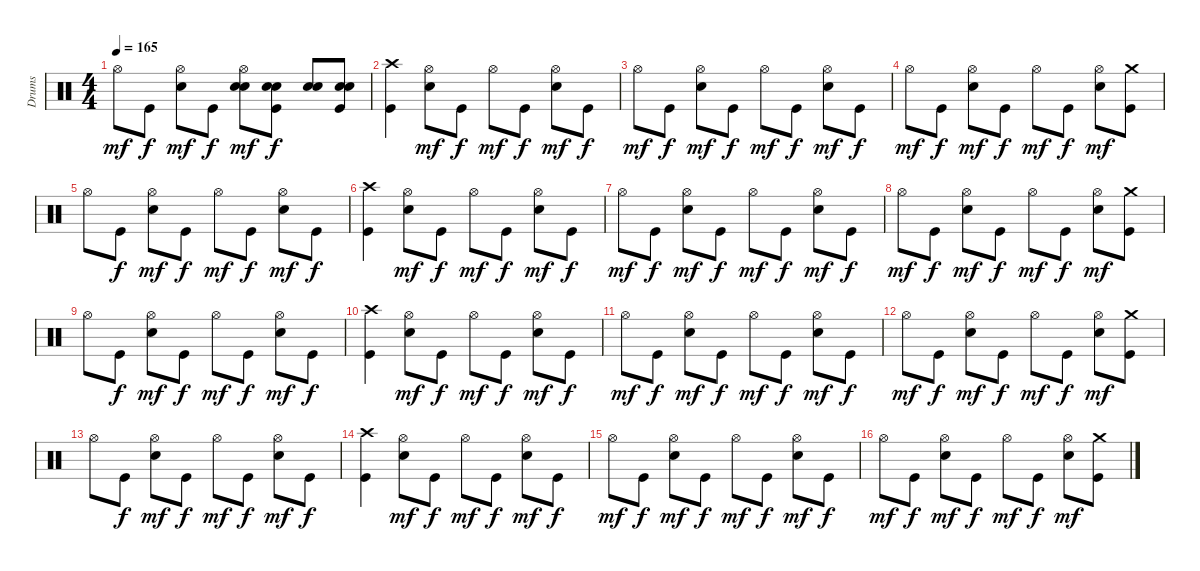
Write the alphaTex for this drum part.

\track ("Drums" "Drums") {instrument percussion}
\staff {score}
\articulation defaults
\ts (4 4)
\tempo 165
\clef neutral
\ks c "Hi-Hat (open)".8{dy mf} "Kick (hit)".8{dy f}
("Electric Snare (hit)" "Hi-Hat (open)").8{dy mf} "Kick (hit)".8{dy f} ("Electric Snare (hit)" "Electric Snare (hit)" "Hi-Hat (open)").8{dy mf} ("Kick (hit)" "Electric Snare (hit)" "Electric Snare (hit)").8{dy f} ("Electric Snare (hit)" "Electric Snare (hit)").8 ("Kick (hit)" "Electric Snare (hit)" "Electric Snare (hit)").8 |
("Kick (hit)" "Crash high (hit)").4 ("Electric Snare (hit)" "Hi-Hat (open)").8{dy mf} "Kick (hit)".8{dy f} "Hi-Hat (open)".8{dy mf} "Kick (hit)".8{dy f} ("Electric Snare (hit)" "Hi-Hat (open)").8{dy mf} "Kick (hit)".8{dy f} |
"Hi-Hat (open)".8{dy mf} "Kick (hit)".8{dy f} ("Electric Snare (hit)" "Hi-Hat (open)").8{dy mf} "Kick (hit)".8{dy f} "Hi-Hat (open)".8{dy mf} "Kick (hit)".8{dy f} ("Electric Snare (hit)" "Hi-Hat (open)").8{dy mf} "Kick (hit)".8{dy f} |
"Hi-Hat (open)".8{dy mf} "Kick (hit)".8{dy f} ("Electric Snare (hit)" "Hi-Hat (open)").8{dy mf} "Kick (hit)".8{dy f} "Hi-Hat (open)".8{dy mf} "Kick (hit)".8{dy f} ("Electric Snare (hit)" "Hi-Hat (open)").8{dy mf} ("Kick (hit)" "Crash medium (hit)").8 |
"Hi-Hat (open)".8 "Kick (hit)".8{dy f} ("Electric Snare (hit)" "Hi-Hat (open)").8{dy mf} "Kick (hit)".8{dy f} "Hi-Hat (open)".8{dy mf} "Kick (hit)".8{dy f} ("Electric Snare (hit)" "Hi-Hat (open)").8{dy mf} "Kick (hit)".8{dy f} |
("Kick (hit)" "Crash high (hit)").4 ("Electric Snare (hit)" "Hi-Hat (open)").8{dy mf} "Kick (hit)".8{dy f} "Hi-Hat (open)".8{dy mf} "Kick (hit)".8{dy f} ("Electric Snare (hit)" "Hi-Hat (open)").8{dy mf} "Kick (hit)".8{dy f} |
"Hi-Hat (open)".8{dy mf} "Kick (hit)".8{dy f} ("Electric Snare (hit)" "Hi-Hat (open)").8{dy mf} "Kick (hit)".8{dy f} "Hi-Hat (open)".8{dy mf} "Kick (hit)".8{dy f} ("Electric Snare (hit)" "Hi-Hat (open)").8{dy mf} "Kick (hit)".8{dy f} |
"Hi-Hat (open)".8{dy mf} "Kick (hit)".8{dy f} ("Electric Snare (hit)" "Hi-Hat (open)").8{dy mf} "Kick (hit)".8{dy f} "Hi-Hat (open)".8{dy mf} "Kick (hit)".8{dy f} ("Electric Snare (hit)" "Hi-Hat (open)").8{dy mf} ("Kick (hit)" "Crash medium (hit)").8 |
"Hi-Hat (open)".8 "Kick (hit)".8{dy f} ("Electric Snare (hit)" "Hi-Hat (open)").8{dy mf} "Kick (hit)".8{dy f} "Hi-Hat (open)".8{dy mf} "Kick (hit)".8{dy f} ("Electric Snare (hit)" "Hi-Hat (open)").8{dy mf} "Kick (hit)".8{dy f} |
("Kick (hit)" "Crash high (hit)").4 ("Electric Snare (hit)" "Hi-Hat (open)").8{dy mf} "Kick (hit)".8{dy f} "Hi-Hat (open)".8{dy mf} "Kick (hit)".8{dy f} ("Electric Snare (hit)" "Hi-Hat (open)").8{dy mf} "Kick (hit)".8{dy f} |
"Hi-Hat (open)".8{dy mf} "Kick (hit)".8{dy f} ("Electric Snare (hit)" "Hi-Hat (open)").8{dy mf} "Kick (hit)".8{dy f} "Hi-Hat (open)".8{dy mf} "Kick (hit)".8{dy f} ("Electric Snare (hit)" "Hi-Hat (open)").8{dy mf} "Kick (hit)".8{dy f} |
"Hi-Hat (open)".8{dy mf} "Kick (hit)".8{dy f} ("Electric Snare (hit)" "Hi-Hat (open)").8{dy mf} "Kick (hit)".8{dy f} "Hi-Hat (open)".8{dy mf} "Kick (hit)".8{dy f} ("Electric Snare (hit)" "Hi-Hat (open)").8{dy mf} ("Kick (hit)" "Crash medium (hit)").8 |
"Hi-Hat (open)".8 "Kick (hit)".8{dy f} ("Electric Snare (hit)" "Hi-Hat (open)").8{dy mf} "Kick (hit)".8{dy f} "Hi-Hat (open)".8{dy mf} "Kick (hit)".8{dy f} ("Electric Snare (hit)" "Hi-Hat (open)").8{dy mf} "Kick (hit)".8{dy f} |
("Kick (hit)" "Crash high (hit)").4 ("Electric Snare (hit)" "Hi-Hat (open)").8{dy mf} "Kick (hit)".8{dy f} "Hi-Hat (open)".8{dy mf} "Kick (hit)".8{dy f} ("Electric Snare (hit)" "Hi-Hat (open)").8{dy mf} "Kick (hit)".8{dy f} |
"Hi-Hat (open)".8{dy mf} "Kick (hit)".8{dy f} ("Electric Snare (hit)" "Hi-Hat (open)").8{dy mf} "Kick (hit)".8{dy f} "Hi-Hat (open)".8{dy mf} "Kick (hit)".8{dy f} ("Electric Snare (hit)" "Hi-Hat (open)").8{dy mf} "Kick (hit)".8{dy f} |
"Hi-Hat (open)".8{dy mf} "Kick (hit)".8{dy f} ("Electric Snare (hit)" "Hi-Hat (open)").8{dy mf} "Kick (hit)".8{dy f} "Hi-Hat (open)".8{dy mf} "Kick (hit)".8{dy f} ("Electric Snare (hit)" "Hi-Hat (open)").8{dy mf} ("Kick (hit)" "Crash medium (hit)").8
